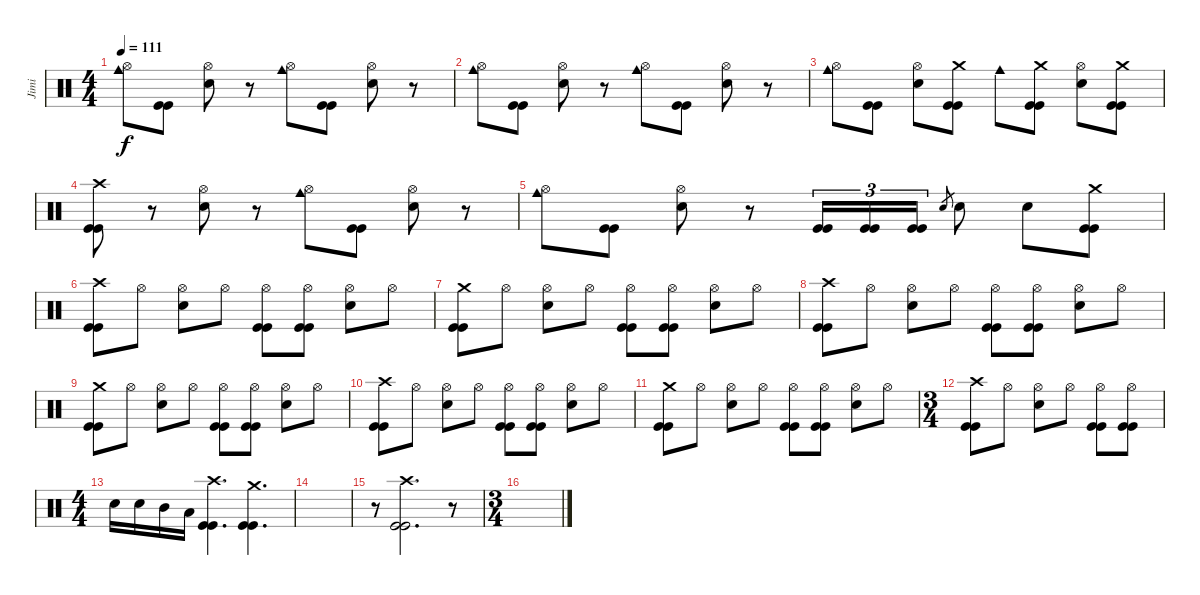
\track ("Jimi" "Jimi") {instrument percussion}
\staff {score}
\articulation defaults
\ts (4 4)
\tempo 111
\clef neutral
\ks c
("Cowbell medium (hit)" "Hi-Hat (open)").8{dy f} ("Kick (hit)" "Kick (hit)").8 ("Hi-Hat (open)" "Electric Snare (hit)").8 r.8 ("Cowbell medium (hit)" "Hi-Hat (open)").8 ("Kick (hit)" "Kick (hit)").8 ("Hi-Hat (open)" "Electric Snare (hit)").8 r.8 |
("Cowbell medium (hit)" "Hi-Hat (open)").8 ("Kick (hit)" "Kick (hit)").8 ("Hi-Hat (open)" "Electric Snare (hit)").8 r.8 ("Cowbell medium (hit)" "Hi-Hat (open)").8 ("Kick (hit)" "Kick (hit)").8 ("Hi-Hat (open)" "Electric Snare (hit)").8 r.8 |
("Cowbell medium (hit)" "Hi-Hat (open)").8 ("Kick (hit)" "Kick (hit)").8 ("Hi-Hat (open)" "Electric Snare (hit)").8 ("Crash medium (hit)" "Kick (hit)" "Kick (hit)").8 "Cowbell medium (hit)".8 ("Crash medium (hit)" "Kick (hit)" "Kick (hit)").8 ("Hi-Hat (open)" "Electric Snare (hit)").8 ("Crash medium (hit)" "Kick (hit)" "Kick (hit)").8 |
("Crash high (hit)" "Kick (hit)" "Kick (hit)").8 r.8 ("Hi-Hat (open)" "Electric Snare (hit)").8 r.8 ("Cowbell medium (hit)" "Hi-Hat (open)").8 ("Kick (hit)" "Kick (hit)").8 ("Hi-Hat (open)" "Electric Snare (hit)").8 r.8 |
("Cowbell medium (hit)" "Hi-Hat (open)").8 ("Kick (hit)" "Kick (hit)").8 ("Hi-Hat (open)" "Electric Snare (hit)").8 r.8 ("Kick (hit)" "Kick (hit)").16{tu (3 2)} ("Kick (hit)" "Kick (hit)").16{tu (3 2)} ("Kick (hit)" "Kick (hit)").16{tu (3 2)} "Electric Snare (hit)".8{gr} "Electric Snare (hit)".8 "Electric Snare (hit)".8 ("Crash medium (hit)" "Kick (hit)" "Kick (hit)").8 |
("Crash high (hit)" "Kick (hit)" "Kick (hit)").8 "Hi-Hat (open)".8 ("Hi-Hat (open)" "Electric Snare (hit)").8 "Hi-Hat (open)".8 ("Hi-Hat (open)" "Kick (hit)" "Kick (hit)").8 ("Hi-Hat (open)" "Kick (hit)" "Kick (hit)").8 ("Hi-Hat (open)" "Electric Snare (hit)").8 "Hi-Hat (open)".8 |
("Crash medium (hit)" "Kick (hit)" "Kick (hit)").8 "Hi-Hat (open)".8 ("Hi-Hat (open)" "Electric Snare (hit)").8 "Hi-Hat (open)".8 ("Hi-Hat (open)" "Kick (hit)" "Kick (hit)").8 ("Hi-Hat (open)" "Kick (hit)" "Kick (hit)").8 ("Hi-Hat (open)" "Electric Snare (hit)").8 "Hi-Hat (open)".8 |
("Crash high (hit)" "Kick (hit)" "Kick (hit)").8 "Hi-Hat (open)".8 ("Hi-Hat (open)" "Electric Snare (hit)").8 "Hi-Hat (open)".8 ("Hi-Hat (open)" "Kick (hit)" "Kick (hit)").8 ("Hi-Hat (open)" "Kick (hit)" "Kick (hit)").8 ("Hi-Hat (open)" "Electric Snare (hit)").8 "Hi-Hat (open)".8 |
("Crash medium (hit)" "Kick (hit)" "Kick (hit)").8 "Hi-Hat (open)".8 ("Hi-Hat (open)" "Electric Snare (hit)").8 "Hi-Hat (open)".8 ("Hi-Hat (open)" "Kick (hit)" "Kick (hit)").8 ("Hi-Hat (open)" "Kick (hit)" "Kick (hit)").8 ("Hi-Hat (open)" "Electric Snare (hit)").8 "Hi-Hat (open)".8 |
("Crash high (hit)" "Kick (hit)" "Kick (hit)").8 "Hi-Hat (open)".8 ("Hi-Hat (open)" "Electric Snare (hit)").8 "Hi-Hat (open)".8 ("Hi-Hat (open)" "Kick (hit)" "Kick (hit)").8 ("Hi-Hat (open)" "Kick (hit)" "Kick (hit)").8 ("Hi-Hat (open)" "Electric Snare (hit)").8 "Hi-Hat (open)".8 |
("Crash medium (hit)" "Kick (hit)" "Kick (hit)").8 "Hi-Hat (open)".8 ("Hi-Hat (open)" "Electric Snare (hit)").8 "Hi-Hat (open)".8 ("Hi-Hat (open)" "Kick (hit)" "Kick (hit)").8 ("Hi-Hat (open)" "Kick (hit)" "Kick (hit)").8 ("Hi-Hat (open)" "Electric Snare (hit)").8 "Hi-Hat (open)".8 |
\ts (3 4)
("Crash high (hit)" "Kick (hit)" "Kick (hit)").8 "Hi-Hat (open)".8 ("Hi-Hat (open)" "Electric Snare (hit)").8 "Hi-Hat (open)".8 ("Hi-Hat (open)" "Kick (hit)" "Kick (hit)").8 ("Hi-Hat (open)" "Kick (hit)" "Kick (hit)").8 |
\ts (4 4)
"Electric Snare (hit)".16 "Electric Snare (hit)".16 "Mid Tom (hit)".16 "Low Tom (hit)".16 ("Crash high (hit)" "Kick (hit)" "Kick (hit)").4{d} ("Crash medium (hit)" "Kick (hit)" "Kick (hit)").4{d} |
|
r.8 ("Crash high (hit)" "Kick (hit)" "Kick (hit)").2{d} r.8 |
\ts (3 4)
